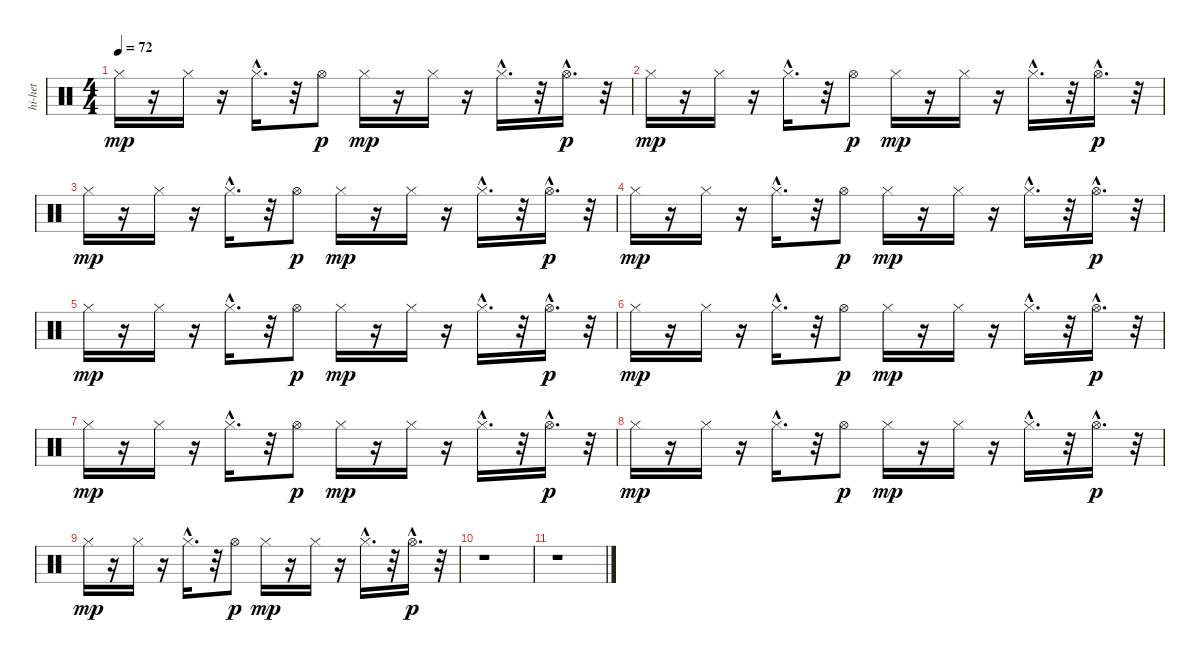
\track ("hi-het" "hi-het") {instrument percussion}
\staff {score}
\articulation defaults
\ts (4 4)
\tempo 72
\clef neutral
\ks c "Hi-Hat (closed)".16{dy mp}
r.16 "Hi-Hat (closed)".16 r.16 "Hi-Hat (closed)"{hac}.16{d} r.32 "Hi-Hat (open)".8{dy p} "Hi-Hat (closed)".16{dy mp} r.16 "Hi-Hat (closed)".16 r.16 "Hi-Hat (closed)"{hac}.16{d} r.32 "Hi-Hat (open)"{hac}.16{d dy p} r.32 |
"Hi-Hat (closed)".16{dy mp} r.16 "Hi-Hat (closed)".16 r.16 "Hi-Hat (closed)"{hac}.16{d} r.32 "Hi-Hat (open)".8{dy p} "Hi-Hat (closed)".16{dy mp} r.16 "Hi-Hat (closed)".16 r.16 "Hi-Hat (closed)"{hac}.16{d} r.32 "Hi-Hat (open)"{hac}.16{d dy p} r.32 |
"Hi-Hat (closed)".16{dy mp} r.16 "Hi-Hat (closed)".16 r.16 "Hi-Hat (closed)"{hac}.16{d} r.32 "Hi-Hat (open)".8{dy p} "Hi-Hat (closed)".16{dy mp} r.16 "Hi-Hat (closed)".16 r.16 "Hi-Hat (closed)"{hac}.16{d} r.32 "Hi-Hat (open)"{hac}.16{d dy p} r.32 |
"Hi-Hat (closed)".16{dy mp} r.16 "Hi-Hat (closed)".16 r.16 "Hi-Hat (closed)"{hac}.16{d} r.32 "Hi-Hat (open)".8{dy p} "Hi-Hat (closed)".16{dy mp} r.16 "Hi-Hat (closed)".16 r.16 "Hi-Hat (closed)"{hac}.16{d} r.32 "Hi-Hat (open)"{hac}.16{d dy p} r.32 |
"Hi-Hat (closed)".16{dy mp} r.16 "Hi-Hat (closed)".16 r.16 "Hi-Hat (closed)"{hac}.16{d} r.32 "Hi-Hat (open)".8{dy p} "Hi-Hat (closed)".16{dy mp} r.16 "Hi-Hat (closed)".16 r.16 "Hi-Hat (closed)"{hac}.16{d} r.32 "Hi-Hat (open)"{hac}.16{d dy p} r.32 |
"Hi-Hat (closed)".16{dy mp} r.16 "Hi-Hat (closed)".16 r.16 "Hi-Hat (closed)"{hac}.16{d} r.32 "Hi-Hat (open)".8{dy p} "Hi-Hat (closed)".16{dy mp} r.16 "Hi-Hat (closed)".16 r.16 "Hi-Hat (closed)"{hac}.16{d} r.32 "Hi-Hat (open)"{hac}.16{d dy p} r.32 |
"Hi-Hat (closed)".16{dy mp} r.16 "Hi-Hat (closed)".16 r.16 "Hi-Hat (closed)"{hac}.16{d} r.32 "Hi-Hat (open)".8{dy p} "Hi-Hat (closed)".16{dy mp} r.16 "Hi-Hat (closed)".16 r.16 "Hi-Hat (closed)"{hac}.16{d} r.32 "Hi-Hat (open)"{hac}.16{d dy p} r.32 |
"Hi-Hat (closed)".16{dy mp} r.16 "Hi-Hat (closed)".16 r.16 "Hi-Hat (closed)"{hac}.16{d} r.32 "Hi-Hat (open)".8{dy p} "Hi-Hat (closed)".16{dy mp} r.16 "Hi-Hat (closed)".16 r.16 "Hi-Hat (closed)"{hac}.16{d} r.32 "Hi-Hat (open)"{hac}.16{d dy p} r.32 |
"Hi-Hat (closed)".16{dy mp} r.16 "Hi-Hat (closed)".16 r.16 "Hi-Hat (closed)"{hac}.16{d} r.32 "Hi-Hat (open)".8{dy p} "Hi-Hat (closed)".16{dy mp} r.16 "Hi-Hat (closed)".16 r.16 "Hi-Hat (closed)"{hac}.16{d} r.32 "Hi-Hat (open)"{hac}.16{d dy p} r.32 |
r.1 |
r.1
